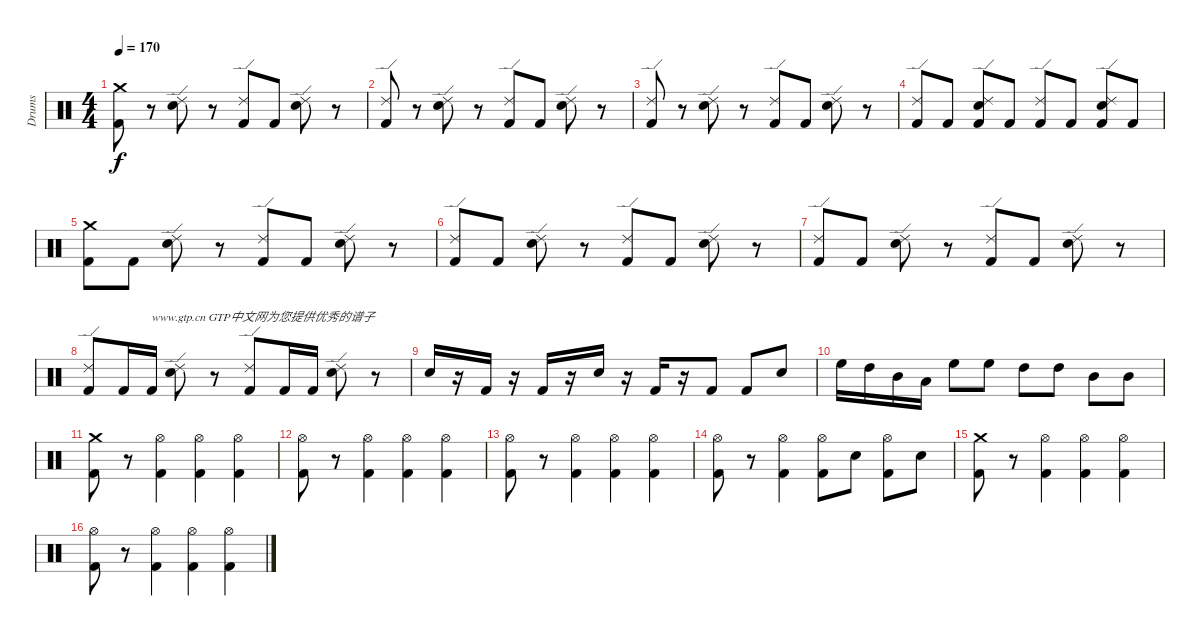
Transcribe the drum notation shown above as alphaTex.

\track ("Drums" "Drums") {instrument percussion}
\staff {score}
\articulation defaults
\ts (4 4)
\tempo 170
\clef neutral
\ks c
("Crash medium (hit)" "Kick (hit) 2").8{dy f} r.8 ("Ride (edge) 2" "Electric Snare (hit)").8 r.8 ("Ride (edge) 2" "Kick (hit) 2").8 "Kick (hit) 2".8 ("Ride (edge) 2" "Electric Snare (hit)").8 r.8 |
("Ride (edge) 2" "Kick (hit) 2").8 r.8 ("Ride (edge) 2" "Electric Snare (hit)").8 r.8 ("Ride (edge) 2" "Kick (hit) 2").8 "Kick (hit) 2".8 ("Ride (edge) 2" "Electric Snare (hit)").8 r.8 |
("Ride (edge) 2" "Kick (hit) 2").8 r.8 ("Ride (edge) 2" "Electric Snare (hit)").8 r.8 ("Ride (edge) 2" "Kick (hit) 2").8 "Kick (hit) 2".8 ("Ride (edge) 2" "Electric Snare (hit)").8 r.8 |
("Ride (edge) 2" "Kick (hit) 2").8 "Kick (hit) 2".8 ("Kick (hit) 2" "Ride (edge) 2" "Electric Snare (hit)").8 "Kick (hit) 2".8 ("Kick (hit) 2" "Ride (edge) 2").8 "Kick (hit) 2".8 ("Kick (hit) 2" "Ride (edge) 2" "Electric Snare (hit)").8 "Kick (hit) 2".8 |
("Crash medium (hit)" "Kick (hit) 2").8 "Kick (hit) 2".8 ("Ride (edge) 2" "Electric Snare (hit)").8 r.8 ("Ride (edge) 2" "Kick (hit) 2").8 "Kick (hit) 2".8 ("Ride (edge) 2" "Electric Snare (hit)").8 r.8 |
("Ride (edge) 2" "Kick (hit) 2").8 "Kick (hit) 2".8 ("Ride (edge) 2" "Electric Snare (hit)").8 r.8 ("Ride (edge) 2" "Kick (hit) 2").8 "Kick (hit) 2".8 ("Ride (edge) 2" "Electric Snare (hit)").8 r.8 |
("Ride (edge) 2" "Kick (hit) 2").8 "Kick (hit) 2".8 ("Ride (edge) 2" "Electric Snare (hit)").8 r.8 ("Ride (edge) 2" "Kick (hit) 2").8 "Kick (hit) 2".8 ("Ride (edge) 2" "Electric Snare (hit)").8 r.8 |
("Ride (edge) 2" "Kick (hit) 2").8 "Kick (hit) 2".16 "Kick (hit) 2".16{txt "www.gtp.cn GTP中文网为您提供优秀的谱子"} ("Ride (edge) 2" "Electric Snare (hit)").8 r.8 ("Ride (edge) 2" "Kick (hit) 2").8 "Kick (hit) 2".16 "Kick (hit) 2".16 ("Ride (edge) 2" "Electric Snare (hit)").8 r.8 |
"Electric Snare (hit)".16 r.16 "Kick (hit) 2".16 r.16 "Kick (hit) 2".16 r.16 "Electric Snare (hit)".16 r.16 "Kick (hit) 2".16 r.16 "Kick (hit) 2".8 "Kick (hit) 2".8 "Electric Snare (hit)".8 |
"High Floor Tom (hit)".16 "High Tom (hit)".16 "Mid Tom (hit)".16 "Low Tom (hit)".16 "High Floor Tom (hit)".8 "High Floor Tom (hit)".8 "High Tom (hit)".8 "High Tom (hit)".8 "Mid Tom (hit)".8 "Mid Tom (hit)".8 |
("Kick (hit) 2" "Crash medium (hit)").8 r.8 ("Kick (hit) 2" "Hi-Hat (open)").4 ("Hi-Hat (open)" "Kick (hit) 2").4 ("Kick (hit) 2" "Hi-Hat (open)").4 |
("Hi-Hat (open)" "Kick (hit) 2").8 r.8 ("Kick (hit) 2" "Hi-Hat (open)").4 ("Hi-Hat (open)" "Kick (hit) 2").4 ("Kick (hit) 2" "Hi-Hat (open)").4 |
("Hi-Hat (open)" "Kick (hit) 2").8 r.8 ("Kick (hit) 2" "Hi-Hat (open)").4 ("Hi-Hat (open)" "Kick (hit) 2").4 ("Kick (hit) 2" "Hi-Hat (open)").4 |
("Hi-Hat (open)" "Kick (hit) 2").8 r.8 ("Kick (hit) 2" "Hi-Hat (open)").4 ("Hi-Hat (open)" "Kick (hit) 2").8 "Electric Snare (hit)".8 ("Kick (hit) 2" "Hi-Hat (open)").8 "Electric Snare (hit)".8 |
("Kick (hit) 2" "Crash medium (hit)").8 r.8 ("Kick (hit) 2" "Hi-Hat (open)").4 ("Hi-Hat (open)" "Kick (hit) 2").4 ("Kick (hit) 2" "Hi-Hat (open)").4 |
("Hi-Hat (open)" "Kick (hit) 2").8 r.8 ("Kick (hit) 2" "Hi-Hat (open)").4 ("Hi-Hat (open)" "Kick (hit) 2").4 ("Kick (hit) 2" "Hi-Hat (open)").4
